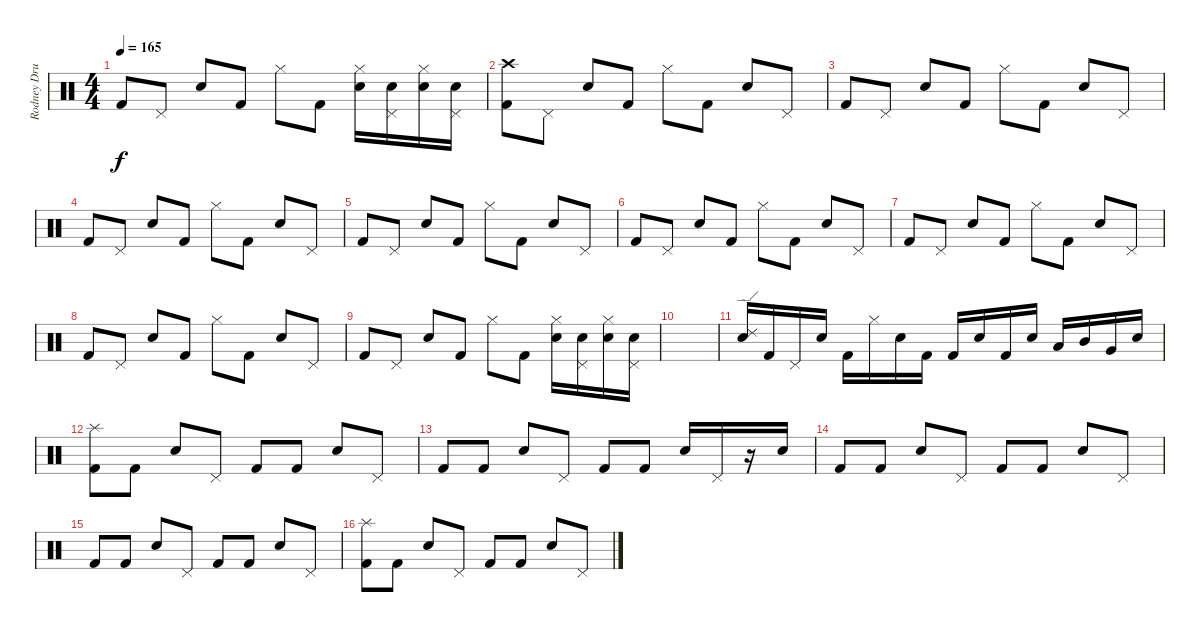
\track ("Rodney Drums" "Rodney Dru") {instrument percussion}
\staff {score}
\articulation defaults
\ts (4 4)
\tempo 165
\clef neutral
\ks c "Kick (hit) 2".8{dy f} "Pedal Hi-Hat (hit)".8 "Electric Snare (hit)".8 "Kick (hit) 2".8 "Hi-Hat (closed)".8 "Kick (hit) 2".8
("Electric Snare (hit)" "Hi-Hat (closed)").16 ("Electric Snare (hit)" "Pedal Hi-Hat (hit)").16 ("Electric Snare (hit)" "Hi-Hat (closed)").16 ("Electric Snare (hit)" "Pedal Hi-Hat (hit)").16 |
("Crash high (hit)" "Kick (hit) 2").8 "Pedal Hi-Hat (hit)".8 "Electric Snare (hit)".8 "Kick (hit) 2".8 "Hi-Hat (closed)".8 "Kick (hit) 2".8 "Electric Snare (hit)".8 "Pedal Hi-Hat (hit)".8 |
"Kick (hit) 2".8 "Pedal Hi-Hat (hit)".8 "Electric Snare (hit)".8 "Kick (hit) 2".8 "Hi-Hat (closed)".8 "Kick (hit) 2".8 "Electric Snare (hit)".8 "Pedal Hi-Hat (hit)".8 |
"Kick (hit) 2".8 "Pedal Hi-Hat (hit)".8 "Electric Snare (hit)".8 "Kick (hit) 2".8 "Hi-Hat (closed)".8 "Kick (hit) 2".8 "Electric Snare (hit)".8 "Pedal Hi-Hat (hit)".8 |
"Kick (hit) 2".8 "Pedal Hi-Hat (hit)".8 "Electric Snare (hit)".8 "Kick (hit) 2".8 "Hi-Hat (closed)".8 "Kick (hit) 2".8 "Electric Snare (hit)".8 "Pedal Hi-Hat (hit)".8 |
"Kick (hit) 2".8 "Pedal Hi-Hat (hit)".8 "Electric Snare (hit)".8 "Kick (hit) 2".8 "Hi-Hat (closed)".8 "Kick (hit) 2".8 "Electric Snare (hit)".8 "Pedal Hi-Hat (hit)".8 |
"Kick (hit) 2".8 "Pedal Hi-Hat (hit)".8 "Electric Snare (hit)".8 "Kick (hit) 2".8 "Hi-Hat (closed)".8 "Kick (hit) 2".8 "Electric Snare (hit)".8 "Pedal Hi-Hat (hit)".8 |
"Kick (hit) 2".8 "Pedal Hi-Hat (hit)".8 "Electric Snare (hit)".8 "Kick (hit) 2".8 "Hi-Hat (closed)".8 "Kick (hit) 2".8 "Electric Snare (hit)".8 "Pedal Hi-Hat (hit)".8 |
"Kick (hit) 2".8 "Pedal Hi-Hat (hit)".8 "Electric Snare (hit)".8 "Kick (hit) 2".8 "Hi-Hat (closed)".8 "Kick (hit) 2".8 ("Electric Snare (hit)" "Hi-Hat (closed)").16 ("Electric Snare (hit)" "Pedal Hi-Hat (hit)").16 ("Electric Snare (hit)" "Hi-Hat (closed)").16 ("Electric Snare (hit)" "Pedal Hi-Hat (hit)").16 |
|
("Ride (edge) 2" "Electric Snare (hit)").16 "Kick (hit) 2".16 "Pedal Hi-Hat (hit)".16 "Electric Snare (hit)".16 "Kick (hit) 2".16 "Hi-Hat (closed)".16 "Electric Snare (hit)".16 "Kick (hit) 2".16 "Kick (hit) 2".16 "Electric Snare (hit)".16 "Kick (hit) 2".16 "Electric Snare (hit)".16 "Low Tom (hit)".16 "Mid Tom (hit)".16 "Very Low Tom (hit)".16 "Electric Snare (hit)".16 |
("Splash (hit)" "Kick (hit) 2").8 "Kick (hit) 2".8 "Electric Snare (hit)".8 "Pedal Hi-Hat (hit)".8 "Kick (hit) 2".8 "Kick (hit) 2".8 "Electric Snare (hit)".8 "Pedal Hi-Hat (hit)".8 |
"Kick (hit) 2".8 "Kick (hit) 2".8 "Electric Snare (hit)".8 "Pedal Hi-Hat (hit)".8 "Kick (hit) 2".8 "Kick (hit) 2".8 "Electric Snare (hit)".16 "Pedal Hi-Hat (hit)".16 r.16 "Electric Snare (hit)".16 |
"Kick (hit) 2".8 "Kick (hit) 2".8 "Electric Snare (hit)".8 "Pedal Hi-Hat (hit)".8 "Kick (hit) 2".8 "Kick (hit) 2".8 "Electric Snare (hit)".8 "Pedal Hi-Hat (hit)".8 |
"Kick (hit) 2".8 "Kick (hit) 2".8 "Electric Snare (hit)".8 "Pedal Hi-Hat (hit)".8 "Kick (hit) 2".8 "Kick (hit) 2".8 "Electric Snare (hit)".8 "Pedal Hi-Hat (hit)".8 |
("Splash (hit)" "Kick (hit) 2").8 "Kick (hit) 2".8 "Electric Snare (hit)".8 "Pedal Hi-Hat (hit)".8 "Kick (hit) 2".8 "Kick (hit) 2".8 "Electric Snare (hit)".8 "Pedal Hi-Hat (hit)".8
